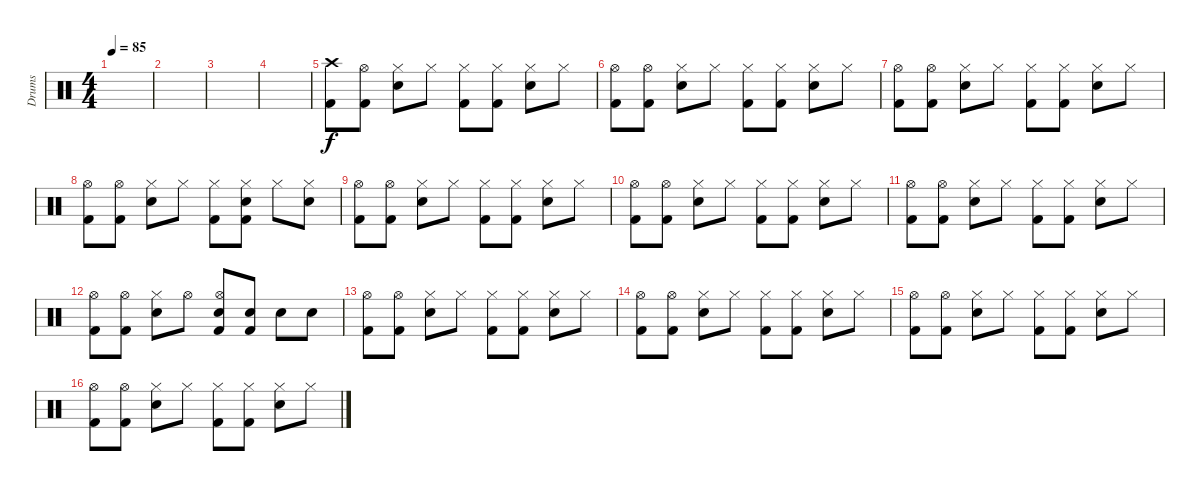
\track ("Drums" "Drums") {instrument percussion}
\staff {score}
\articulation defaults
\ts (4 4)
\tempo 85
\clef neutral
\ks c
|
|
|
|
("Crash high (hit)" "Kick (hit) 2").8 ("Hi-Hat (open)" "Kick (hit) 2").8 ("Hi-Hat (closed)" "Electric Snare (hit)").8 "Hi-Hat (closed)".8 ("Hi-Hat (closed)" "Kick (hit) 2").8 ("Hi-Hat (closed)" "Kick (hit) 2").8 ("Hi-Hat (closed)" "Electric Snare (hit)").8 "Hi-Hat (closed)".8 |
("Hi-Hat (open)" "Kick (hit) 2").8 ("Hi-Hat (open)" "Kick (hit) 2").8 ("Hi-Hat (closed)" "Electric Snare (hit)").8 "Hi-Hat (closed)".8 ("Hi-Hat (closed)" "Kick (hit) 2").8 ("Hi-Hat (closed)" "Kick (hit) 2").8 ("Hi-Hat (closed)" "Electric Snare (hit)").8 "Hi-Hat (closed)".8 |
("Hi-Hat (open)" "Kick (hit) 2").8 ("Hi-Hat (open)" "Kick (hit) 2").8 ("Hi-Hat (closed)" "Electric Snare (hit)").8 "Hi-Hat (closed)".8 ("Hi-Hat (closed)" "Kick (hit) 2").8 ("Hi-Hat (closed)" "Kick (hit) 2").8 ("Hi-Hat (closed)" "Electric Snare (hit)").8 "Hi-Hat (closed)".8 |
("Hi-Hat (open)" "Kick (hit) 2").8 ("Hi-Hat (open)" "Kick (hit) 2").8 ("Hi-Hat (closed)" "Electric Snare (hit)").8 "Hi-Hat (closed)".8 ("Hi-Hat (closed)" "Kick (hit) 2").8 ("Hi-Hat (closed)" "Electric Snare (hit)" "Kick (hit) 2").8 "Hi-Hat (closed)".8 ("Hi-Hat (closed)" "Electric Snare (hit)").8 |
("Hi-Hat (open)" "Kick (hit) 2").8 ("Hi-Hat (open)" "Kick (hit) 2").8 ("Hi-Hat (closed)" "Electric Snare (hit)").8 "Hi-Hat (closed)".8 ("Hi-Hat (closed)" "Kick (hit) 2").8 ("Hi-Hat (closed)" "Kick (hit) 2").8 ("Hi-Hat (closed)" "Electric Snare (hit)").8 "Hi-Hat (closed)".8 |
("Hi-Hat (open)" "Kick (hit) 2").8 ("Hi-Hat (open)" "Kick (hit) 2").8 ("Hi-Hat (closed)" "Electric Snare (hit)").8 "Hi-Hat (closed)".8 ("Hi-Hat (closed)" "Kick (hit) 2").8 ("Hi-Hat (closed)" "Kick (hit) 2").8 ("Hi-Hat (closed)" "Electric Snare (hit)").8 "Hi-Hat (closed)".8 |
("Hi-Hat (open)" "Kick (hit) 2").8 ("Hi-Hat (open)" "Kick (hit) 2").8 ("Hi-Hat (closed)" "Electric Snare (hit)").8 "Hi-Hat (closed)".8 ("Hi-Hat (closed)" "Kick (hit) 2").8 ("Hi-Hat (closed)" "Kick (hit) 2").8 ("Hi-Hat (closed)" "Electric Snare (hit)").8 "Hi-Hat (closed)".8 |
("Hi-Hat (open)" "Kick (hit) 2").8 ("Hi-Hat (open)" "Kick (hit) 2").8 ("Hi-Hat (closed)" "Electric Snare (hit)").8 "Hi-Hat (open)".8 ("Hi-Hat (open)" "Electric Snare (hit)" "Kick (hit) 2").8 ("Electric Snare (hit)" "Kick (hit) 2").8 "Electric Snare (hit)".8 "Electric Snare (hit)".8 |
("Hi-Hat (open)" "Kick (hit) 2").8 ("Hi-Hat (open)" "Kick (hit) 2").8 ("Hi-Hat (closed)" "Electric Snare (hit)").8 "Hi-Hat (closed)".8 ("Hi-Hat (closed)" "Kick (hit) 2").8 ("Hi-Hat (closed)" "Kick (hit) 2").8 ("Hi-Hat (closed)" "Electric Snare (hit)").8 "Hi-Hat (closed)".8 |
("Hi-Hat (open)" "Kick (hit) 2").8 ("Hi-Hat (open)" "Kick (hit) 2").8 ("Hi-Hat (closed)" "Electric Snare (hit)").8 "Hi-Hat (closed)".8 ("Hi-Hat (closed)" "Kick (hit) 2").8 ("Hi-Hat (closed)" "Kick (hit) 2").8 ("Hi-Hat (closed)" "Electric Snare (hit)").8 "Hi-Hat (closed)".8 |
("Hi-Hat (open)" "Kick (hit) 2").8 ("Hi-Hat (open)" "Kick (hit) 2").8 ("Hi-Hat (closed)" "Electric Snare (hit)").8 "Hi-Hat (closed)".8 ("Hi-Hat (closed)" "Kick (hit) 2").8 ("Hi-Hat (closed)" "Kick (hit) 2").8 ("Hi-Hat (closed)" "Electric Snare (hit)").8 "Hi-Hat (closed)".8 |
("Hi-Hat (open)" "Kick (hit) 2").8 ("Hi-Hat (open)" "Kick (hit) 2").8 ("Hi-Hat (closed)" "Electric Snare (hit)").8 "Hi-Hat (closed)".8 ("Hi-Hat (closed)" "Kick (hit) 2").8 ("Hi-Hat (closed)" "Kick (hit) 2").8 ("Hi-Hat (closed)" "Electric Snare (hit)").8 "Hi-Hat (closed)".8
